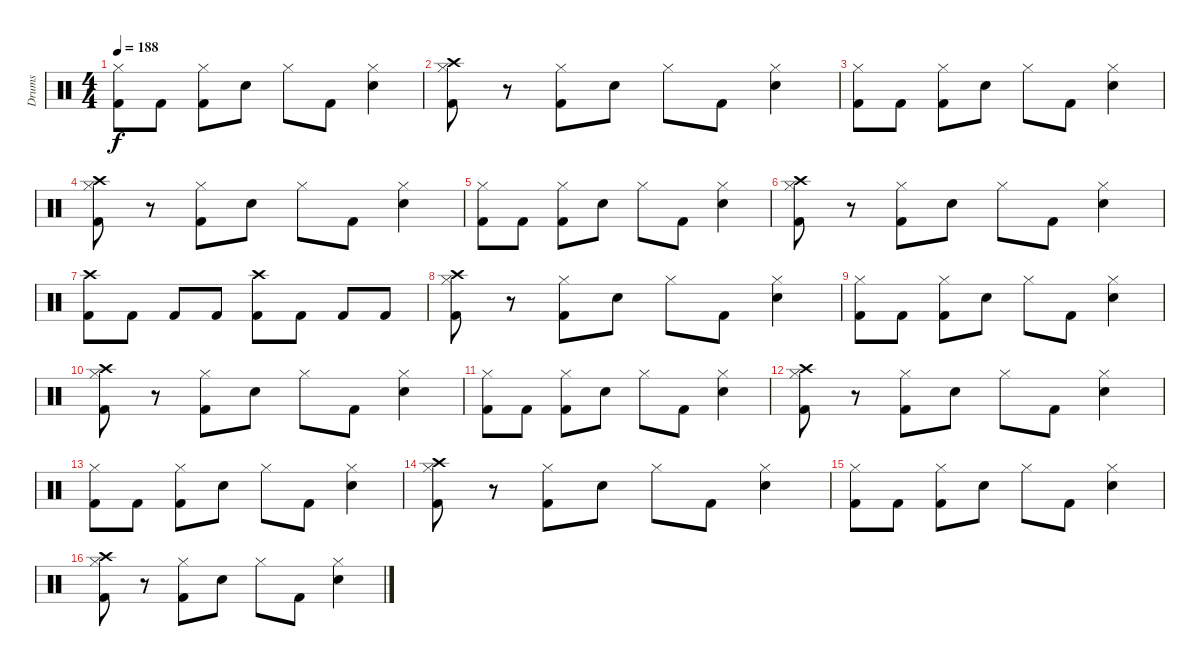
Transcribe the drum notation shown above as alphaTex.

\track ("Drums" "Drums") {instrument percussion}
\staff {score}
\articulation defaults
\ts (4 4)
\tempo 188
\clef neutral
\ks c
("Hi-Hat (closed)" "Kick (hit) 2").8{dy f} "Kick (hit) 2".8 ("Hi-Hat (closed)" "Kick (hit) 2").8 "Snare (hit) 2".8 "Hi-Hat (closed)".8 "Kick (hit) 2".8 ("Hi-Hat (closed)" "Snare (hit) 2").4 |
("Crash high (hit)" "Hi-Hat (closed)" "Kick (hit) 2").8 r.8 ("Hi-Hat (closed)" "Kick (hit) 2").8 "Snare (hit) 2".8 "Hi-Hat (closed)".8 "Kick (hit) 2".8 ("Hi-Hat (closed)" "Snare (hit) 2").4 |
("Hi-Hat (closed)" "Kick (hit) 2").8 "Kick (hit) 2".8 ("Hi-Hat (closed)" "Kick (hit) 2").8 "Snare (hit) 2".8 "Hi-Hat (closed)".8 "Kick (hit) 2".8 ("Hi-Hat (closed)" "Snare (hit) 2").4 |
("Crash high (hit)" "Hi-Hat (closed)" "Kick (hit) 2").8 r.8 ("Hi-Hat (closed)" "Kick (hit) 2").8 "Snare (hit) 2".8 "Hi-Hat (closed)".8 "Kick (hit) 2".8 ("Hi-Hat (closed)" "Snare (hit) 2").4 |
("Hi-Hat (closed)" "Kick (hit) 2").8 "Kick (hit) 2".8 ("Hi-Hat (closed)" "Kick (hit) 2").8 "Snare (hit) 2".8 "Hi-Hat (closed)".8 "Kick (hit) 2".8 ("Hi-Hat (closed)" "Snare (hit) 2").4 |
("Crash high (hit)" "Hi-Hat (closed)" "Kick (hit) 2").8 r.8 ("Hi-Hat (closed)" "Kick (hit) 2").8 "Snare (hit) 2".8 "Hi-Hat (closed)".8 "Kick (hit) 2".8 ("Hi-Hat (closed)" "Snare (hit) 2").4 |
("Crash high (hit)" "Kick (hit) 2").8 "Kick (hit) 2".8 "Kick (hit) 2".8 "Kick (hit) 2".8 ("Crash high (hit)" "Kick (hit) 2").8 "Kick (hit) 2".8 "Kick (hit) 2".8 "Kick (hit) 2".8 |
("Crash high (hit)" "Hi-Hat (closed)" "Kick (hit) 2").8 r.8 ("Hi-Hat (closed)" "Kick (hit) 2").8 "Snare (hit) 2".8 "Hi-Hat (closed)".8 "Kick (hit) 2".8 ("Hi-Hat (closed)" "Snare (hit) 2").4 |
("Hi-Hat (closed)" "Kick (hit) 2").8 "Kick (hit) 2".8 ("Hi-Hat (closed)" "Kick (hit) 2").8 "Snare (hit) 2".8 "Hi-Hat (closed)".8 "Kick (hit) 2".8 ("Hi-Hat (closed)" "Snare (hit) 2").4 |
("Crash high (hit)" "Hi-Hat (closed)" "Kick (hit) 2").8 r.8 ("Hi-Hat (closed)" "Kick (hit) 2").8 "Snare (hit) 2".8 "Hi-Hat (closed)".8 "Kick (hit) 2".8 ("Hi-Hat (closed)" "Snare (hit) 2").4 |
("Hi-Hat (closed)" "Kick (hit) 2").8 "Kick (hit) 2".8 ("Hi-Hat (closed)" "Kick (hit) 2").8 "Snare (hit) 2".8 "Hi-Hat (closed)".8 "Kick (hit) 2".8 ("Hi-Hat (closed)" "Snare (hit) 2").4 |
("Crash high (hit)" "Hi-Hat (closed)" "Kick (hit) 2").8 r.8 ("Hi-Hat (closed)" "Kick (hit) 2").8 "Snare (hit) 2".8 "Hi-Hat (closed)".8 "Kick (hit) 2".8 ("Hi-Hat (closed)" "Snare (hit) 2").4 |
("Hi-Hat (closed)" "Kick (hit) 2").8 "Kick (hit) 2".8 ("Hi-Hat (closed)" "Kick (hit) 2").8 "Snare (hit) 2".8 "Hi-Hat (closed)".8 "Kick (hit) 2".8 ("Hi-Hat (closed)" "Snare (hit) 2").4 |
("Crash high (hit)" "Hi-Hat (closed)" "Kick (hit) 2").8 r.8 ("Hi-Hat (closed)" "Kick (hit) 2").8 "Snare (hit) 2".8 "Hi-Hat (closed)".8 "Kick (hit) 2".8 ("Hi-Hat (closed)" "Snare (hit) 2").4 |
("Hi-Hat (closed)" "Kick (hit) 2").8 "Kick (hit) 2".8 ("Hi-Hat (closed)" "Kick (hit) 2").8 "Snare (hit) 2".8 "Hi-Hat (closed)".8 "Kick (hit) 2".8 ("Hi-Hat (closed)" "Snare (hit) 2").4 |
("Crash high (hit)" "Hi-Hat (closed)" "Kick (hit) 2").8 r.8 ("Hi-Hat (closed)" "Kick (hit) 2").8 "Snare (hit) 2".8 "Hi-Hat (closed)".8 "Kick (hit) 2".8 ("Hi-Hat (closed)" "Snare (hit) 2").4
